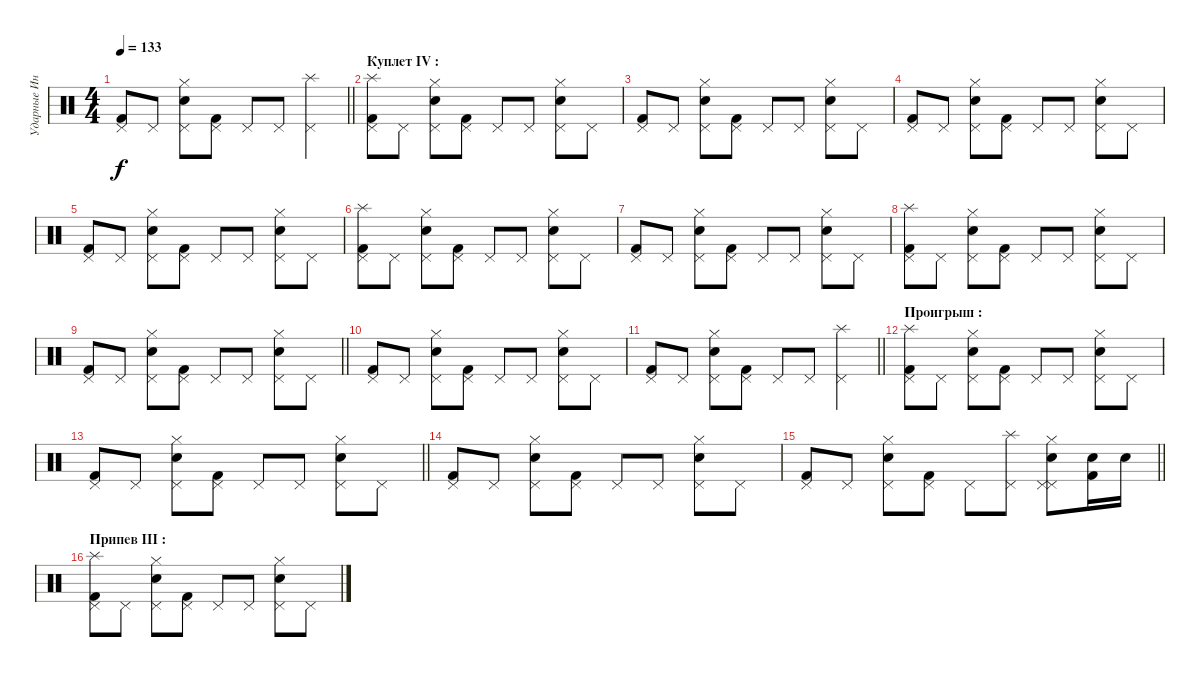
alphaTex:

\track ("Ударные Инструменты" "Ударные Ин") {instrument percussion}
\staff {score}
\articulation defaults
\ts (4 4)
\tempo 133
\clef neutral
\barLineRight lightlight
\ks c
("Pedal Hi-Hat (hit)" "Kick (hit) 2").8{dy f} "Pedal Hi-Hat (hit)".8 ("Electric Snare (hit)" "Pedal Hi-Hat (hit)" "Hi-Hat (closed)").8 ("Pedal Hi-Hat (hit)" "Kick (hit) 2").8 "Pedal Hi-Hat (hit)".8 "Pedal Hi-Hat (hit)".8 ("Splash (hit)" "Pedal Hi-Hat (hit)").4 |
\section ("" "Куплет IV :")
("Splash (hit)" "Pedal Hi-Hat (hit)" "Kick (hit) 2").8 "Pedal Hi-Hat (hit)".8 ("Electric Snare (hit)" "Pedal Hi-Hat (hit)" "Hi-Hat (closed)").8 ("Pedal Hi-Hat (hit)" "Kick (hit) 2").8 "Pedal Hi-Hat (hit)".8 "Pedal Hi-Hat (hit)".8 ("Electric Snare (hit)" "Pedal Hi-Hat (hit)" "Hi-Hat (closed)").8 "Pedal Hi-Hat (hit)".8 |
("Pedal Hi-Hat (hit)" "Kick (hit) 2").8 "Pedal Hi-Hat (hit)".8 ("Electric Snare (hit)" "Pedal Hi-Hat (hit)" "Hi-Hat (closed)").8 ("Pedal Hi-Hat (hit)" "Kick (hit) 2").8 "Pedal Hi-Hat (hit)".8 "Pedal Hi-Hat (hit)".8 ("Electric Snare (hit)" "Pedal Hi-Hat (hit)" "Hi-Hat (closed)").8 "Pedal Hi-Hat (hit)".8 |
("Pedal Hi-Hat (hit)" "Kick (hit) 2").8 "Pedal Hi-Hat (hit)".8 ("Electric Snare (hit)" "Pedal Hi-Hat (hit)" "Hi-Hat (closed)").8 ("Pedal Hi-Hat (hit)" "Kick (hit) 2").8 "Pedal Hi-Hat (hit)".8 "Pedal Hi-Hat (hit)".8 ("Electric Snare (hit)" "Pedal Hi-Hat (hit)" "Hi-Hat (closed)").8 "Pedal Hi-Hat (hit)".8 |
("Pedal Hi-Hat (hit)" "Kick (hit) 2").8 "Pedal Hi-Hat (hit)".8 ("Electric Snare (hit)" "Pedal Hi-Hat (hit)" "Hi-Hat (closed)").8 ("Pedal Hi-Hat (hit)" "Kick (hit) 2").8 "Pedal Hi-Hat (hit)".8 "Pedal Hi-Hat (hit)".8 ("Electric Snare (hit)" "Pedal Hi-Hat (hit)" "Hi-Hat (closed)").8 "Pedal Hi-Hat (hit)".8 |
("Splash (hit)" "Pedal Hi-Hat (hit)" "Kick (hit) 2").8 "Pedal Hi-Hat (hit)".8 ("Electric Snare (hit)" "Pedal Hi-Hat (hit)" "Hi-Hat (closed)").8 ("Pedal Hi-Hat (hit)" "Kick (hit) 2").8 "Pedal Hi-Hat (hit)".8 "Pedal Hi-Hat (hit)".8 ("Electric Snare (hit)" "Pedal Hi-Hat (hit)" "Hi-Hat (closed)").8 "Pedal Hi-Hat (hit)".8 |
("Pedal Hi-Hat (hit)" "Kick (hit) 2").8 "Pedal Hi-Hat (hit)".8 ("Electric Snare (hit)" "Pedal Hi-Hat (hit)" "Hi-Hat (closed)").8 ("Pedal Hi-Hat (hit)" "Kick (hit) 2").8 "Pedal Hi-Hat (hit)".8 "Pedal Hi-Hat (hit)".8 ("Electric Snare (hit)" "Pedal Hi-Hat (hit)" "Hi-Hat (closed)").8 "Pedal Hi-Hat (hit)".8 |
("Splash (hit)" "Pedal Hi-Hat (hit)" "Kick (hit) 2").8 "Pedal Hi-Hat (hit)".8 ("Electric Snare (hit)" "Pedal Hi-Hat (hit)" "Hi-Hat (closed)").8 ("Pedal Hi-Hat (hit)" "Kick (hit) 2").8 "Pedal Hi-Hat (hit)".8 "Pedal Hi-Hat (hit)".8 ("Electric Snare (hit)" "Pedal Hi-Hat (hit)" "Hi-Hat (closed)").8 "Pedal Hi-Hat (hit)".8 |
\barLineRight lightlight
("Pedal Hi-Hat (hit)" "Kick (hit) 2").8 "Pedal Hi-Hat (hit)".8 ("Electric Snare (hit)" "Pedal Hi-Hat (hit)" "Hi-Hat (closed)").8 ("Pedal Hi-Hat (hit)" "Kick (hit) 2").8 "Pedal Hi-Hat (hit)".8 "Pedal Hi-Hat (hit)".8 ("Electric Snare (hit)" "Pedal Hi-Hat (hit)" "Hi-Hat (closed)").8 "Pedal Hi-Hat (hit)".8 |
("Pedal Hi-Hat (hit)" "Kick (hit) 2").8 "Pedal Hi-Hat (hit)".8 ("Electric Snare (hit)" "Pedal Hi-Hat (hit)" "Hi-Hat (closed)").8 ("Pedal Hi-Hat (hit)" "Kick (hit) 2").8 "Pedal Hi-Hat (hit)".8 "Pedal Hi-Hat (hit)".8 ("Electric Snare (hit)" "Pedal Hi-Hat (hit)" "Hi-Hat (closed)").8 "Pedal Hi-Hat (hit)".8 |
\barLineRight lightlight
("Pedal Hi-Hat (hit)" "Kick (hit) 2").8 "Pedal Hi-Hat (hit)".8 ("Electric Snare (hit)" "Pedal Hi-Hat (hit)" "Hi-Hat (closed)").8 ("Pedal Hi-Hat (hit)" "Kick (hit) 2").8 "Pedal Hi-Hat (hit)".8 "Pedal Hi-Hat (hit)".8 ("Splash (hit)" "Pedal Hi-Hat (hit)").4 |
\section ("" "Проигрыш :")
("Splash (hit)" "Pedal Hi-Hat (hit)" "Kick (hit) 2").8 "Pedal Hi-Hat (hit)".8 ("Electric Snare (hit)" "Pedal Hi-Hat (hit)" "Hi-Hat (closed)").8 ("Pedal Hi-Hat (hit)" "Kick (hit) 2").8 "Pedal Hi-Hat (hit)".8 "Pedal Hi-Hat (hit)".8 ("Electric Snare (hit)" "Pedal Hi-Hat (hit)" "Hi-Hat (closed)").8 "Pedal Hi-Hat (hit)".8 |
\barLineRight lightlight
("Pedal Hi-Hat (hit)" "Kick (hit) 2").8 "Pedal Hi-Hat (hit)".8 ("Electric Snare (hit)" "Pedal Hi-Hat (hit)" "Hi-Hat (closed)").8 ("Pedal Hi-Hat (hit)" "Kick (hit) 2").8 "Pedal Hi-Hat (hit)".8 "Pedal Hi-Hat (hit)".8 ("Electric Snare (hit)" "Pedal Hi-Hat (hit)" "Hi-Hat (closed)").8 "Pedal Hi-Hat (hit)".8 |
("Pedal Hi-Hat (hit)" "Kick (hit) 2").8 "Pedal Hi-Hat (hit)".8 ("Electric Snare (hit)" "Pedal Hi-Hat (hit)" "Hi-Hat (closed)").8 ("Pedal Hi-Hat (hit)" "Kick (hit) 2").8 "Pedal Hi-Hat (hit)".8 "Pedal Hi-Hat (hit)".8 ("Electric Snare (hit)" "Pedal Hi-Hat (hit)" "Hi-Hat (closed)").8 "Pedal Hi-Hat (hit)".8 |
\barLineRight lightlight
("Pedal Hi-Hat (hit)" "Kick (hit) 2").8 "Pedal Hi-Hat (hit)".8 ("Electric Snare (hit)" "Pedal Hi-Hat (hit)" "Hi-Hat (closed)").8 ("Pedal Hi-Hat (hit)" "Kick (hit) 2").8 "Pedal Hi-Hat (hit)".8 ("Splash (hit)" "Pedal Hi-Hat (hit)").8 ("Electric Snare (hit)" "Pedal Hi-Hat (hit)" "Hi-Hat (closed)" "Pedal Hi-Hat (hit)").8 ("Snare (hit) 2" "Kick (hit) 2").16 "Snare (hit) 2".16 |
\section ("" "Припев III :")
("Splash (hit)" "Pedal Hi-Hat (hit)" "Kick (hit) 2").8 "Pedal Hi-Hat (hit)".8 ("Electric Snare (hit)" "Pedal Hi-Hat (hit)" "Hi-Hat (closed)").8 ("Pedal Hi-Hat (hit)" "Kick (hit) 2").8 "Pedal Hi-Hat (hit)".8 "Pedal Hi-Hat (hit)".8 ("Electric Snare (hit)" "Pedal Hi-Hat (hit)" "Hi-Hat (closed)").8 "Pedal Hi-Hat (hit)".8
